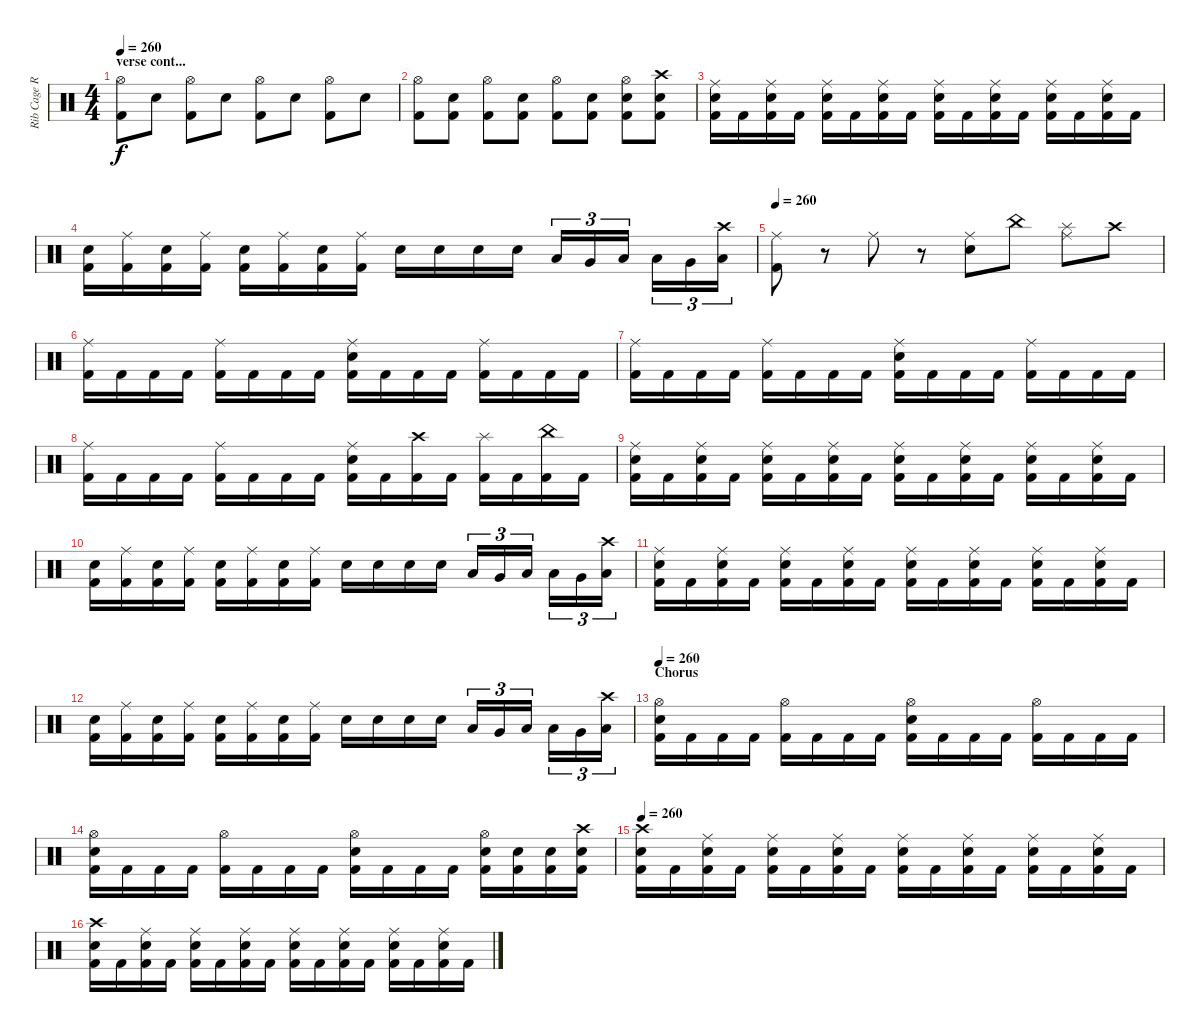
\track ("Rib Cage Rupturing God Stomping Cremator" "Rib Cage R") {instrument percussion}
\staff {score}
\articulation defaults
\ts (4 4)
\section ("" "verse cont...")
\tempo 260
\clef neutral
\ks c
("Hi-Hat (open)" "Kick (hit) 2").8{dy f} "Electric Snare (hit)".8 ("Hi-Hat (open)" "Kick (hit) 2").8 "Electric Snare (hit)".8 ("Hi-Hat (open)" "Kick (hit) 2").8 "Electric Snare (hit)".8 ("Hi-Hat (open)" "Kick (hit) 2").8 "Electric Snare (hit)".8 |
("Hi-Hat (open)" "Kick (hit) 2").8 ("Electric Snare (hit)" "Kick (hit) 2").8 ("Hi-Hat (open)" "Kick (hit) 2").8 ("Electric Snare (hit)" "Kick (hit) 2").8 ("Hi-Hat (open)" "Kick (hit) 2").8 ("Electric Snare (hit)" "Kick (hit) 2").8 ("Hi-Hat (open)" "Electric Snare (hit)" "Kick (hit) 2").8 ("Crash high (hit)" "Electric Snare (hit)" "Kick (hit) 2").8 |
("Ride (middle)" "Electric Snare (hit)" "Kick (hit) 2").16 "Kick (hit) 2".16 ("Ride (middle)" "Electric Snare (hit)" "Kick (hit) 2").16 "Kick (hit) 2".16 ("Ride (middle)" "Electric Snare (hit)" "Kick (hit) 2").16 "Kick (hit) 2".16 ("Ride (middle)" "Electric Snare (hit)" "Kick (hit) 2").16 "Kick (hit) 2".16 ("Ride (middle)" "Electric Snare (hit)" "Kick (hit) 2").16 "Kick (hit) 2".16 ("Ride (middle)" "Electric Snare (hit)" "Kick (hit) 2").16 "Kick (hit) 2".16 ("Ride (middle)" "Electric Snare (hit)" "Kick (hit) 2").16 "Kick (hit) 2".16 ("Ride (middle)" "Electric Snare (hit)" "Kick (hit) 2").16 "Kick (hit) 2".16 |
("Electric Snare (hit)" "Kick (hit) 2").16 ("Ride (middle)" "Kick (hit) 2").16 ("Electric Snare (hit)" "Kick (hit) 2").16 ("Ride (middle)" "Kick (hit) 2").16 ("Electric Snare (hit)" "Kick (hit) 2").16 ("Ride (middle)" "Kick (hit) 2").16 ("Electric Snare (hit)" "Kick (hit) 2").16 ("Ride (middle)" "Kick (hit) 2").16 "Electric Snare (hit)".16 "Electric Snare (hit)".16 "Electric Snare (hit)".16 "Electric Snare (hit)".16 "Low Tom (hit)".16{tu (3 2)} "Very Low Tom (hit)".16{tu (3 2)} "Low Floor Tom (hit)".16{tu (3 2)} "Low Tom (hit)".16{tu (3 2)} "Very Low Tom (hit)".16{tu (3 2)} ("Crash high (hit)" "Low Floor Tom (hit)").16{tu (3 2)} |
\tempo 260
("Ride (middle)" "Kick (hit) 2").8 r.8 "Ride (middle)".8 r.8 ("Ride (middle)" "Electric Snare (hit)").8 "China (hit)".8 ("Splash (hit)" "Ride (middle)").8 "Crash high (hit)".8 |
("Ride (middle)" "Kick (hit) 2").16 "Kick (hit) 2".16 "Kick (hit) 2".16 "Kick (hit) 2".16 ("Ride (middle)" "Kick (hit) 2").16 "Kick (hit) 2".16 "Kick (hit) 2".16 "Kick (hit) 2".16 ("Ride (middle)" "Electric Snare (hit)" "Kick (hit) 2").16 "Kick (hit) 2".16 "Kick (hit) 2".16 "Kick (hit) 2".16 ("Ride (middle)" "Kick (hit) 2").16 "Kick (hit) 2".16 "Kick (hit) 2".16 "Kick (hit) 2".16 |
("Ride (middle)" "Kick (hit) 2").16 "Kick (hit) 2".16 "Kick (hit) 2".16 "Kick (hit) 2".16 ("Ride (middle)" "Kick (hit) 2").16 "Kick (hit) 2".16 "Kick (hit) 2".16 "Kick (hit) 2".16 ("Ride (middle)" "Electric Snare (hit)" "Kick (hit) 2").16 "Kick (hit) 2".16 "Kick (hit) 2".16 "Kick (hit) 2".16 ("Ride (middle)" "Kick (hit) 2").16 "Kick (hit) 2".16 "Kick (hit) 2".16 "Kick (hit) 2".16 |
("Ride (middle)" "Kick (hit) 2").16 "Kick (hit) 2".16 "Kick (hit) 2".16 "Kick (hit) 2".16 ("Ride (middle)" "Kick (hit) 2").16 "Kick (hit) 2".16 "Kick (hit) 2".16 "Kick (hit) 2".16 ("Ride (middle)" "Electric Snare (hit)" "Kick (hit) 2").16 "Kick (hit) 2".16 ("Crash high (hit)" "Kick (hit) 2").16 "Kick (hit) 2".16 ("Splash (hit)" "Kick (hit) 2").16 "Kick (hit) 2".16 ("China (hit)" "Kick (hit) 2").16 "Kick (hit) 2".16 |
("Ride (middle)" "Electric Snare (hit)" "Kick (hit) 2").16 "Kick (hit) 2".16 ("Ride (middle)" "Electric Snare (hit)" "Kick (hit) 2").16 "Kick (hit) 2".16 ("Ride (middle)" "Electric Snare (hit)" "Kick (hit) 2").16 "Kick (hit) 2".16 ("Ride (middle)" "Electric Snare (hit)" "Kick (hit) 2").16 "Kick (hit) 2".16 ("Ride (middle)" "Electric Snare (hit)" "Kick (hit) 2").16 "Kick (hit) 2".16 ("Ride (middle)" "Electric Snare (hit)" "Kick (hit) 2").16 "Kick (hit) 2".16 ("Ride (middle)" "Electric Snare (hit)" "Kick (hit) 2").16 "Kick (hit) 2".16 ("Ride (middle)" "Electric Snare (hit)" "Kick (hit) 2").16 "Kick (hit) 2".16 |
("Electric Snare (hit)" "Kick (hit) 2").16 ("Ride (middle)" "Kick (hit) 2").16 ("Electric Snare (hit)" "Kick (hit) 2").16 ("Ride (middle)" "Kick (hit) 2").16 ("Electric Snare (hit)" "Kick (hit) 2").16 ("Ride (middle)" "Kick (hit) 2").16 ("Electric Snare (hit)" "Kick (hit) 2").16 ("Ride (middle)" "Kick (hit) 2").16 "Electric Snare (hit)".16 "Electric Snare (hit)".16 "Electric Snare (hit)".16 "Electric Snare (hit)".16 "Low Tom (hit)".16{tu (3 2)} "Very Low Tom (hit)".16{tu (3 2)} "Low Floor Tom (hit)".16{tu (3 2)} "Low Tom (hit)".16{tu (3 2)} "Very Low Tom (hit)".16{tu (3 2)} ("Crash high (hit)" "Low Floor Tom (hit)").16{tu (3 2)} |
("Ride (middle)" "Electric Snare (hit)" "Kick (hit) 2").16 "Kick (hit) 2".16 ("Ride (middle)" "Electric Snare (hit)" "Kick (hit) 2").16 "Kick (hit) 2".16 ("Ride (middle)" "Electric Snare (hit)" "Kick (hit) 2").16 "Kick (hit) 2".16 ("Ride (middle)" "Electric Snare (hit)" "Kick (hit) 2").16 "Kick (hit) 2".16 ("Ride (middle)" "Electric Snare (hit)" "Kick (hit) 2").16 "Kick (hit) 2".16 ("Ride (middle)" "Electric Snare (hit)" "Kick (hit) 2").16 "Kick (hit) 2".16 ("Ride (middle)" "Electric Snare (hit)" "Kick (hit) 2").16 "Kick (hit) 2".16 ("Ride (middle)" "Electric Snare (hit)" "Kick (hit) 2").16 "Kick (hit) 2".16 |
("Electric Snare (hit)" "Kick (hit) 2").16 ("Ride (middle)" "Kick (hit) 2").16 ("Electric Snare (hit)" "Kick (hit) 2").16 ("Ride (middle)" "Kick (hit) 2").16 ("Electric Snare (hit)" "Kick (hit) 2").16 ("Ride (middle)" "Kick (hit) 2").16 ("Electric Snare (hit)" "Kick (hit) 2").16 ("Ride (middle)" "Kick (hit) 2").16 "Electric Snare (hit)".16 "Electric Snare (hit)".16 "Electric Snare (hit)".16 "Electric Snare (hit)".16 "Low Tom (hit)".16{tu (3 2)} "Very Low Tom (hit)".16{tu (3 2)} "Low Floor Tom (hit)".16{tu (3 2)} "Low Tom (hit)".16{tu (3 2)} "Very Low Tom (hit)".16{tu (3 2)} ("Crash high (hit)" "Low Floor Tom (hit)").16{tu (3 2)} |
\section ("" "Chorus")
\tempo 260
("Hi-Hat (open)" "Electric Snare (hit)" "Kick (hit) 2").16 "Kick (hit) 2".16 "Kick (hit) 2".16 "Kick (hit) 2".16 ("Hi-Hat (open)" "Kick (hit) 2").16 "Kick (hit) 2".16 "Kick (hit) 2".16 "Kick (hit) 2".16 ("Hi-Hat (open)" "Electric Snare (hit)" "Kick (hit) 2").16 "Kick (hit) 2".16 "Kick (hit) 2".16 "Kick (hit) 2".16 ("Hi-Hat (open)" "Kick (hit) 2").16 "Kick (hit) 2".16 "Kick (hit) 2".16 "Kick (hit) 2".16 |
("Hi-Hat (open)" "Electric Snare (hit)" "Kick (hit) 2").16 "Kick (hit) 2".16 "Kick (hit) 2".16 "Kick (hit) 2".16 ("Hi-Hat (open)" "Kick (hit) 2").16 "Kick (hit) 2".16 "Kick (hit) 2".16 "Kick (hit) 2".16 ("Hi-Hat (open)" "Electric Snare (hit)" "Kick (hit) 2").16 "Kick (hit) 2".16 "Kick (hit) 2".16 "Kick (hit) 2".16 ("Hi-Hat (open)" "Electric Snare (hit)" "Kick (hit) 2").16 ("Electric Snare (hit)" "Kick (hit) 2").16 ("Electric Snare (hit)" "Kick (hit) 2").16 ("Crash high (hit)" "Electric Snare (hit)" "Kick (hit) 2").16 |
\tempo 260
("Crash high (hit)" "Electric Snare (hit)" "Kick (hit) 2").16 "Kick (hit) 2".16 ("Ride (middle)" "Electric Snare (hit)" "Kick (hit) 2").16 "Kick (hit) 2".16 ("Ride (middle)" "Electric Snare (hit)" "Kick (hit) 2").16 "Kick (hit) 2".16 ("Ride (middle)" "Electric Snare (hit)" "Kick (hit) 2").16 "Kick (hit) 2".16 ("Ride (middle)" "Electric Snare (hit)" "Kick (hit) 2").16 "Kick (hit) 2".16 ("Ride (middle)" "Electric Snare (hit)" "Kick (hit) 2").16 "Kick (hit) 2".16 ("Ride (middle)" "Electric Snare (hit)" "Kick (hit) 2").16 "Kick (hit) 2".16 ("Ride (middle)" "Electric Snare (hit)" "Kick (hit) 2").16 "Kick (hit) 2".16 |
("Crash high (hit)" "Electric Snare (hit)" "Kick (hit) 2").16 "Kick (hit) 2".16 ("Ride (middle)" "Electric Snare (hit)" "Kick (hit) 2").16 "Kick (hit) 2".16 ("Ride (middle)" "Electric Snare (hit)" "Kick (hit) 2").16 "Kick (hit) 2".16 ("Ride (middle)" "Electric Snare (hit)" "Kick (hit) 2").16 "Kick (hit) 2".16 ("Ride (middle)" "Electric Snare (hit)" "Kick (hit) 2").16 "Kick (hit) 2".16 ("Ride (middle)" "Electric Snare (hit)" "Kick (hit) 2").16 "Kick (hit) 2".16 ("Ride (middle)" "Electric Snare (hit)" "Kick (hit) 2").16 "Kick (hit) 2".16 ("Ride (middle)" "Electric Snare (hit)" "Kick (hit) 2").16 "Kick (hit) 2".16
